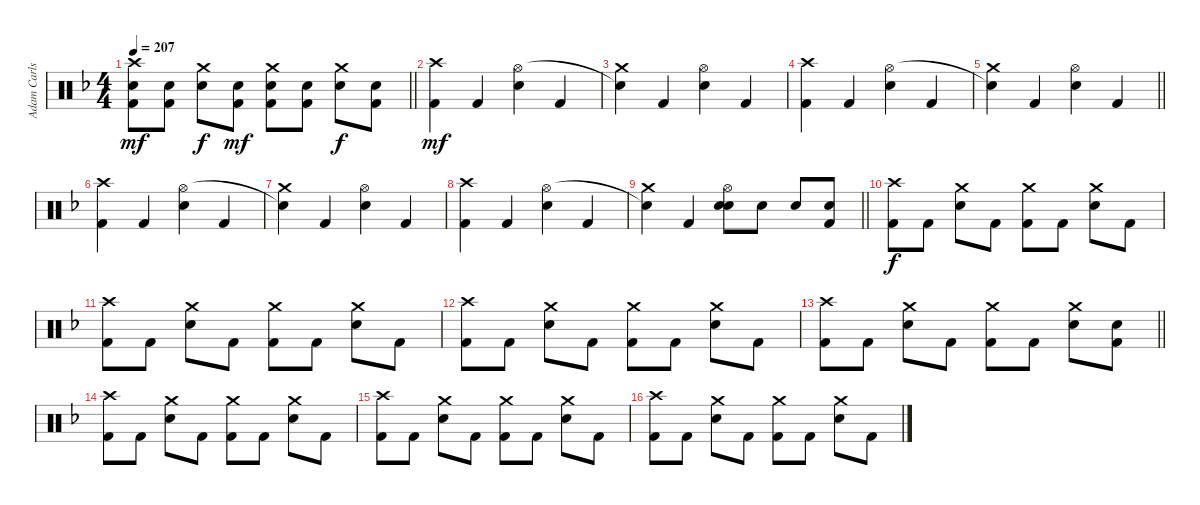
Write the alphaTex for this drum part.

\track ("Adam Carlson" "Adam Carls") {instrument percussion}
\staff {score}
\articulation defaults
\ts (4 4)
\tempo 207
\clef neutral
\barLineRight lightlight
\ks f
("Crash high (hit)" "Electric Snare (hit)" "Kick (hit) 2").8{dy mf} ("Electric Snare (hit)" "Kick (hit) 2").8 ("Crash medium (hit)" "Electric Snare (hit)").8{dy f} ("Electric Snare (hit)" "Kick (hit) 2").8{dy mf} ("Crash medium (hit)" "Electric Snare (hit)" "Kick (hit) 2").8 ("Electric Snare (hit)" "Kick (hit) 2").8 ("Crash medium (hit)" "Electric Snare (hit)").8{dy f} ("Electric Snare (hit)" "Kick (hit) 2").8 |
("Crash high (hit)" "Kick (hit) 2").4{dy mf} "Kick (hit) 2".4 ("Electric Snare (hit)" "Hi-Hat (open)").4 "Kick (hit) 2".4 |
("Crash medium (hit)" "Snare (hit)"{t}).4 "Kick (hit) 2".4 ("Electric Snare (hit)" "Hi-Hat (open)").4 "Kick (hit) 2".4 |
("Crash high (hit)" "Kick (hit) 2").4 "Kick (hit) 2".4 ("Electric Snare (hit)" "Hi-Hat (open)").4 "Kick (hit) 2".4 |
\barLineRight lightlight
("Crash medium (hit)" "Snare (hit)"{t}).4 "Kick (hit) 2".4 ("Electric Snare (hit)" "Hi-Hat (open)").4 "Kick (hit) 2".4 |
("Crash high (hit)" "Kick (hit) 2").4 "Kick (hit) 2".4 ("Electric Snare (hit)" "Hi-Hat (open)").4 "Kick (hit) 2".4 |
("Crash medium (hit)" "Snare (hit)"{t}).4 "Kick (hit) 2".4 ("Electric Snare (hit)" "Hi-Hat (open)").4 "Kick (hit) 2".4 |
("Crash high (hit)" "Kick (hit) 2").4 "Kick (hit) 2".4 ("Electric Snare (hit)" "Hi-Hat (open)").4 "Kick (hit) 2".4 |
\barLineRight lightlight
("Crash medium (hit)" "Snare (hit)"{t}).4 "Kick (hit) 2".4 ("Electric Snare (hit)" "Electric Snare (hit)" "Hi-Hat (open)").8 "Electric Snare (hit)".8 "Electric Snare (hit)".8 ("Electric Snare (hit)" "Kick (hit) 2").8 |
("Crash high (hit)" "Kick (hit) 2").8{dy f} "Kick (hit) 2".8 ("Crash medium (hit)" "Electric Snare (hit)").8 "Kick (hit) 2".8 ("Crash medium (hit)" "Kick (hit) 2").8 "Kick (hit) 2".8 ("Crash medium (hit)" "Electric Snare (hit)").8 "Kick (hit) 2".8 |
("Crash high (hit)" "Kick (hit) 2").8 "Kick (hit) 2".8 ("Crash medium (hit)" "Electric Snare (hit)").8 "Kick (hit) 2".8 ("Crash medium (hit)" "Kick (hit) 2").8 "Kick (hit) 2".8 ("Crash medium (hit)" "Electric Snare (hit)").8 "Kick (hit) 2".8 |
("Crash high (hit)" "Kick (hit) 2").8 "Kick (hit) 2".8 ("Crash medium (hit)" "Electric Snare (hit)").8 "Kick (hit) 2".8 ("Crash medium (hit)" "Kick (hit) 2").8 "Kick (hit) 2".8 ("Crash medium (hit)" "Electric Snare (hit)").8 "Kick (hit) 2".8 |
\barLineRight lightlight
("Crash high (hit)" "Kick (hit) 2").8 "Kick (hit) 2".8 ("Crash medium (hit)" "Electric Snare (hit)").8 "Kick (hit) 2".8 ("Crash medium (hit)" "Kick (hit) 2").8 "Kick (hit) 2".8 ("Crash medium (hit)" "Electric Snare (hit)").8 ("Electric Snare (hit)" "Kick (hit) 2").8 |
("Crash high (hit)" "Kick (hit) 2").8 "Kick (hit) 2".8 ("Crash medium (hit)" "Electric Snare (hit)").8 "Kick (hit) 2".8 ("Crash medium (hit)" "Kick (hit) 2").8 "Kick (hit) 2".8 ("Crash medium (hit)" "Electric Snare (hit)").8 "Kick (hit) 2".8 |
("Crash high (hit)" "Kick (hit) 2").8 "Kick (hit) 2".8 ("Crash medium (hit)" "Electric Snare (hit)").8 "Kick (hit) 2".8 ("Crash medium (hit)" "Kick (hit) 2").8 "Kick (hit) 2".8 ("Crash medium (hit)" "Electric Snare (hit)").8 "Kick (hit) 2".8 |
("Crash high (hit)" "Kick (hit) 2").8 "Kick (hit) 2".8 ("Crash medium (hit)" "Electric Snare (hit)").8 "Kick (hit) 2".8 ("Crash medium (hit)" "Kick (hit) 2").8 "Kick (hit) 2".8 ("Crash medium (hit)" "Electric Snare (hit)").8 "Kick (hit) 2".8
